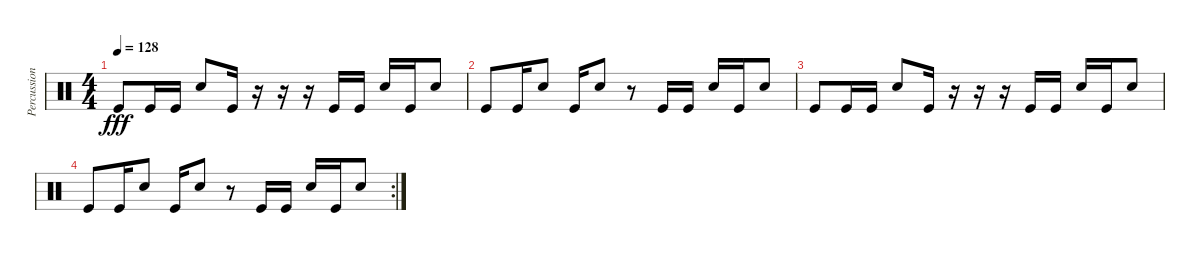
\track ("Percussions" "Percussion") {instrument percussion}
\staff {score}
\articulation defaults
\ts (4 4)
\tempo 128
\clef neutral
\ks c "Kick (hit)".8{dy fff} "Kick (hit)".16 "Kick (hit)".16 "Snare (hit) 2".8 "Kick (hit)".16
r.16 r.16 r.16 "Kick (hit)".16 "Kick (hit)".16 "Snare (hit) 2".16 "Kick (hit)".16 "Hand Clap (hit)".8 |
"Kick (hit)".8 "Kick (hit)".16 "Snare (hit) 2".8 "Kick (hit)".16 "Snare (hit) 2".8 r.8 "Kick (hit)".16 "Kick (hit)".16 "Snare (hit) 2".16 "Kick (hit)".16 "Hand Clap (hit)".8 |
"Kick (hit)".8 "Kick (hit)".16 "Kick (hit)".16 "Snare (hit) 2".8 "Kick (hit)".16 r.16 r.16 r.16 "Kick (hit)".16 "Kick (hit)".16 "Snare (hit) 2".16 "Kick (hit)".16 "Hand Clap (hit)".8 |
\rc 2 "Kick (hit)".8 "Kick (hit)".16 "Snare (hit) 2".8 "Kick (hit)".16 "Snare (hit) 2".8
r.8 "Kick (hit)".16 "Kick (hit)".16 "Snare (hit) 2".16 "Kick (hit)".16 "Hand Clap (hit)".8
